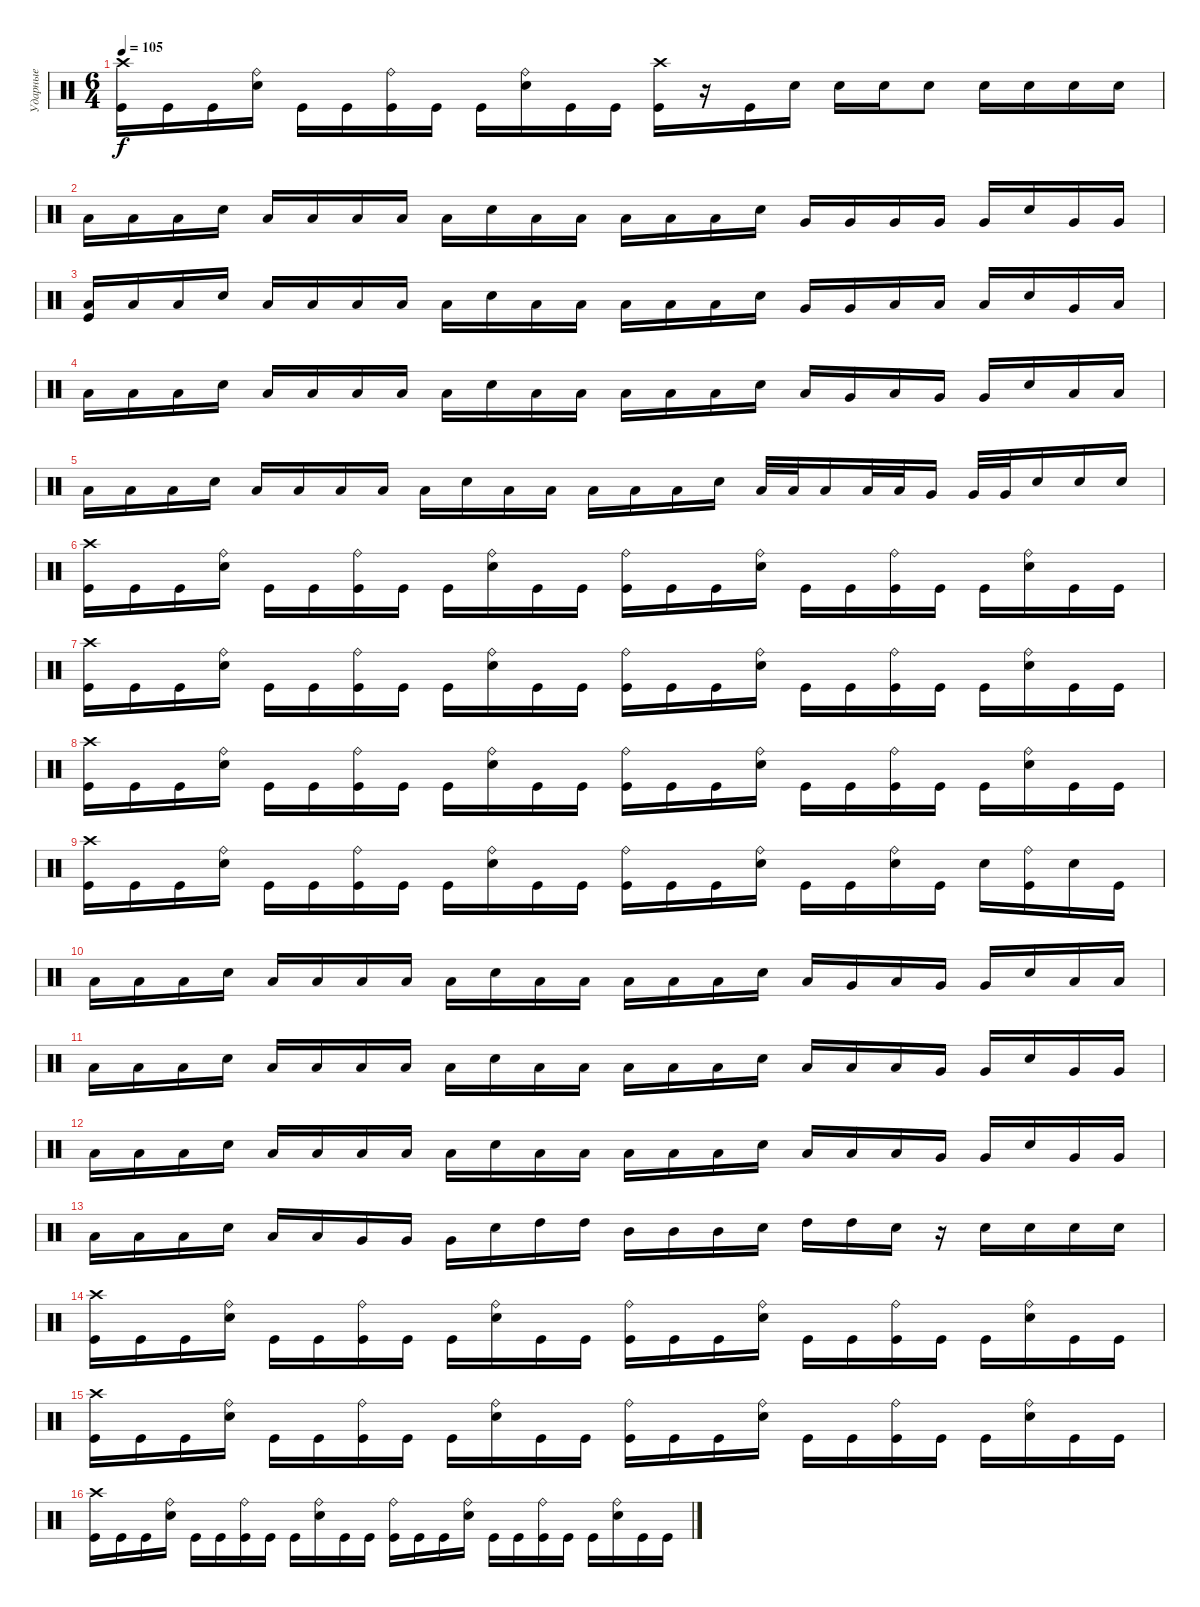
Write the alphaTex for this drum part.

\track ("Ударные" "Ударные") {instrument percussion}
\staff {score}
\articulation defaults
\ts (6 4)
\tempo 105
\clef neutral
\ks c
("Crash high (hit)" "Kick (hit)").16{dy f} "Kick (hit)".16 "Kick (hit)".16 ("Ride (bell)" "Electric Snare (hit)").16 "Kick (hit)".16 "Kick (hit)".16 ("Ride (bell)" "Kick (hit)").16 "Kick (hit)".16 "Kick (hit)".16 ("Ride (bell)" "Electric Snare (hit)").16 "Kick (hit)".16 "Kick (hit)".16 ("Crash high (hit)" "Kick (hit)").16 r.16 "Kick (hit)".16 "Electric Snare (hit)".16 "Electric Snare (hit)".16 "Electric Snare (hit)".16 "Electric Snare (hit)".8 "Electric Snare (hit)".16 "Electric Snare (hit)".16 "Electric Snare (hit)".16 "Electric Snare (hit)".16 |
"Low Tom (hit)".16 "Low Tom (hit)".16 "Low Tom (hit)".16 "Electric Snare (hit)".16 "Low Tom (hit)".16 "Low Tom (hit)".16 "Low Tom (hit)".16 "Low Tom (hit)".16 "Low Tom (hit)".16 "Electric Snare (hit)".16 "Low Tom (hit)".16 "Low Tom (hit)".16 "Low Tom (hit)".16 "Low Tom (hit)".16 "Low Tom (hit)".16 "Electric Snare (hit)".16 "Very Low Tom (hit)".16 "Very Low Tom (hit)".16 "Very Low Tom (hit)".16 "Very Low Tom (hit)".16 "Very Low Tom (hit)".16 "Electric Snare (hit)".16 "Very Low Tom (hit)".16 "Very Low Tom (hit)".16 |
("Low Tom (hit)" "Kick (hit)").16 "Low Tom (hit)".16 "Low Tom (hit)".16 "Electric Snare (hit)".16 "Low Tom (hit)".16 "Low Tom (hit)".16 "Low Tom (hit)".16 "Low Tom (hit)".16 "Low Tom (hit)".16 "Electric Snare (hit)".16 "Low Tom (hit)".16 "Low Tom (hit)".16 "Low Tom (hit)".16 "Low Tom (hit)".16 "Low Tom (hit)".16 "Electric Snare (hit)".16 "Very Low Tom (hit)".16 "Very Low Tom (hit)".16 "Low Tom (hit)".16 "Low Tom (hit)".16 "Low Tom (hit)".16 "Electric Snare (hit)".16 "Very Low Tom (hit)".16 "Low Tom (hit)".16 |
"Low Tom (hit)".16 "Low Tom (hit)".16 "Low Tom (hit)".16 "Electric Snare (hit)".16 "Low Tom (hit)".16 "Low Tom (hit)".16 "Low Tom (hit)".16 "Low Tom (hit)".16 "Low Tom (hit)".16 "Electric Snare (hit)".16 "Low Tom (hit)".16 "Low Tom (hit)".16 "Low Tom (hit)".16 "Low Tom (hit)".16 "Low Tom (hit)".16 "Electric Snare (hit)".16 "Low Tom (hit)".16 "Very Low Tom (hit)".16 "Low Tom (hit)".16 "Very Low Tom (hit)".16 "Very Low Tom (hit)".16 "Electric Snare (hit)".16 "Low Tom (hit)".16 "Low Tom (hit)".16 |
"Low Tom (hit)".16 "Low Tom (hit)".16 "Low Tom (hit)".16 "Electric Snare (hit)".16 "Low Tom (hit)".16 "Low Tom (hit)".16 "Low Tom (hit)".16 "Low Tom (hit)".16 "Low Tom (hit)".16 "Electric Snare (hit)".16 "Low Tom (hit)".16 "Low Tom (hit)".16 "Low Tom (hit)".16 "Low Tom (hit)".16 "Low Tom (hit)".16 "Electric Snare (hit)".16 "Low Tom (hit)".32 "Low Tom (hit)".32 "Low Tom (hit)".16 "Low Tom (hit)".32 "Low Tom (hit)".32 "Very Low Tom (hit)".16 "Very Low Tom (hit)".32 "Very Low Tom (hit)".32 "Electric Snare (hit)".16 "Electric Snare (hit)".16 "Electric Snare (hit)".16 |
("Crash high (hit)" "Kick (hit)").16 "Kick (hit)".16 "Kick (hit)".16 ("Ride (bell)" "Electric Snare (hit)").16 "Kick (hit)".16 "Kick (hit)".16 ("Ride (bell)" "Kick (hit)").16 "Kick (hit)".16 "Kick (hit)".16 ("Ride (bell)" "Electric Snare (hit)").16 "Kick (hit)".16 "Kick (hit)".16 ("Ride (bell)" "Kick (hit)").16 "Kick (hit)".16 "Kick (hit)".16 ("Ride (bell)" "Electric Snare (hit)").16 "Kick (hit)".16 "Kick (hit)".16 ("Ride (bell)" "Kick (hit)").16 "Kick (hit)".16 "Kick (hit)".16 ("Ride (bell)" "Electric Snare (hit)").16 "Kick (hit)".16 "Kick (hit)".16 |
("Crash high (hit)" "Kick (hit)").16 "Kick (hit)".16 "Kick (hit)".16 ("Ride (bell)" "Electric Snare (hit)").16 "Kick (hit)".16 "Kick (hit)".16 ("Ride (bell)" "Kick (hit)").16 "Kick (hit)".16 "Kick (hit)".16 ("Ride (bell)" "Electric Snare (hit)").16 "Kick (hit)".16 "Kick (hit)".16 ("Ride (bell)" "Kick (hit)").16 "Kick (hit)".16 "Kick (hit)".16 ("Ride (bell)" "Electric Snare (hit)").16 "Kick (hit)".16 "Kick (hit)".16 ("Ride (bell)" "Kick (hit)").16 "Kick (hit)".16 "Kick (hit)".16 ("Ride (bell)" "Electric Snare (hit)").16 "Kick (hit)".16 "Kick (hit)".16 |
("Crash high (hit)" "Kick (hit)").16 "Kick (hit)".16 "Kick (hit)".16 ("Ride (bell)" "Electric Snare (hit)").16 "Kick (hit)".16 "Kick (hit)".16 ("Ride (bell)" "Kick (hit)").16 "Kick (hit)".16 "Kick (hit)".16 ("Ride (bell)" "Electric Snare (hit)").16 "Kick (hit)".16 "Kick (hit)".16 ("Ride (bell)" "Kick (hit)").16 "Kick (hit)".16 "Kick (hit)".16 ("Ride (bell)" "Electric Snare (hit)").16 "Kick (hit)".16 "Kick (hit)".16 ("Ride (bell)" "Kick (hit)").16 "Kick (hit)".16 "Kick (hit)".16 ("Ride (bell)" "Electric Snare (hit)").16 "Kick (hit)".16 "Kick (hit)".16 |
("Crash high (hit)" "Kick (hit)").16 "Kick (hit)".16 "Kick (hit)".16 ("Ride (bell)" "Electric Snare (hit)").16 "Kick (hit)".16 "Kick (hit)".16 ("Ride (bell)" "Kick (hit)").16 "Kick (hit)".16 "Kick (hit)".16 ("Ride (bell)" "Electric Snare (hit)").16 "Kick (hit)".16 "Kick (hit)".16 ("Ride (bell)" "Kick (hit)").16 "Kick (hit)".16 "Kick (hit)".16 ("Ride (bell)" "Electric Snare (hit)").16 "Kick (hit)".16 "Kick (hit)".16 ("Ride (bell)" "Electric Snare (hit)").16 "Kick (hit)".16 "Electric Snare (hit)".16 ("Ride (bell)" "Kick (hit)").16 "Electric Snare (hit)".16 "Kick (hit)".16 |
"Low Tom (hit)".16 "Low Tom (hit)".16 "Low Tom (hit)".16 "Electric Snare (hit)".16 "Low Tom (hit)".16 "Low Tom (hit)".16 "Low Tom (hit)".16 "Low Tom (hit)".16 "Low Tom (hit)".16 "Electric Snare (hit)".16 "Low Tom (hit)".16 "Low Tom (hit)".16 "Low Tom (hit)".16 "Low Tom (hit)".16 "Low Tom (hit)".16 "Electric Snare (hit)".16 "Low Tom (hit)".16 "Very Low Tom (hit)".16 "Low Tom (hit)".16 "Very Low Tom (hit)".16 "Very Low Tom (hit)".16 "Electric Snare (hit)".16 "Low Tom (hit)".16 "Low Tom (hit)".16 |
"Low Tom (hit)".16 "Low Tom (hit)".16 "Low Tom (hit)".16 "Electric Snare (hit)".16 "Low Tom (hit)".16 "Low Tom (hit)".16 "Low Tom (hit)".16 "Low Tom (hit)".16 "Low Tom (hit)".16 "Electric Snare (hit)".16 "Low Tom (hit)".16 "Low Tom (hit)".16 "Low Tom (hit)".16 "Low Tom (hit)".16 "Low Tom (hit)".16 "Electric Snare (hit)".16 "Low Tom (hit)".16 "Low Tom (hit)".16 "Low Tom (hit)".16 "Very Low Tom (hit)".16 "Very Low Tom (hit)".16 "Electric Snare (hit)".16 "Very Low Tom (hit)".16 "Very Low Tom (hit)".16 |
"Low Tom (hit)".16 "Low Tom (hit)".16 "Low Tom (hit)".16 "Electric Snare (hit)".16 "Low Tom (hit)".16 "Low Tom (hit)".16 "Low Tom (hit)".16 "Low Tom (hit)".16 "Low Tom (hit)".16 "Electric Snare (hit)".16 "Low Tom (hit)".16 "Low Tom (hit)".16 "Low Tom (hit)".16 "Low Tom (hit)".16 "Low Tom (hit)".16 "Electric Snare (hit)".16 "Low Tom (hit)".16 "Low Tom (hit)".16 "Low Tom (hit)".16 "Very Low Tom (hit)".16 "Very Low Tom (hit)".16 "Electric Snare (hit)".16 "Very Low Tom (hit)".16 "Very Low Tom (hit)".16 |
"Low Tom (hit)".16 "Low Tom (hit)".16 "Low Tom (hit)".16 "Electric Snare (hit)".16 "Low Tom (hit)".16 "Low Tom (hit)".16 "Very Low Tom (hit)".16 "Very Low Tom (hit)".16 "Very Low Tom (hit)".16 "Electric Snare (hit)".16 "High Tom (hit)".16 "High Tom (hit)".16 "Mid Tom (hit)".16 "Mid Tom (hit)".16 "Mid Tom (hit)".16 "Electric Snare (hit)".16 "High Tom (hit)".16 "High Tom (hit)".16 "Electric Snare (hit)".16 r.16 "Electric Snare (hit)".16 "Electric Snare (hit)".16 "Electric Snare (hit)".16 "Electric Snare (hit)".16 |
("Crash high (hit)" "Kick (hit)").16 "Kick (hit)".16 "Kick (hit)".16 ("Ride (bell)" "Electric Snare (hit)").16 "Kick (hit)".16 "Kick (hit)".16 ("Ride (bell)" "Kick (hit)").16 "Kick (hit)".16 "Kick (hit)".16 ("Ride (bell)" "Electric Snare (hit)").16 "Kick (hit)".16 "Kick (hit)".16 ("Ride (bell)" "Kick (hit)").16 "Kick (hit)".16 "Kick (hit)".16 ("Ride (bell)" "Electric Snare (hit)").16 "Kick (hit)".16 "Kick (hit)".16 ("Ride (bell)" "Kick (hit)").16 "Kick (hit)".16 "Kick (hit)".16 ("Ride (bell)" "Electric Snare (hit)").16 "Kick (hit)".16 "Kick (hit)".16 |
("Crash high (hit)" "Kick (hit)").16 "Kick (hit)".16 "Kick (hit)".16 ("Ride (bell)" "Electric Snare (hit)").16 "Kick (hit)".16 "Kick (hit)".16 ("Ride (bell)" "Kick (hit)").16 "Kick (hit)".16 "Kick (hit)".16 ("Ride (bell)" "Electric Snare (hit)").16 "Kick (hit)".16 "Kick (hit)".16 ("Ride (bell)" "Kick (hit)").16 "Kick (hit)".16 "Kick (hit)".16 ("Ride (bell)" "Electric Snare (hit)").16 "Kick (hit)".16 "Kick (hit)".16 ("Ride (bell)" "Kick (hit)").16 "Kick (hit)".16 "Kick (hit)".16 ("Ride (bell)" "Electric Snare (hit)").16 "Kick (hit)".16 "Kick (hit)".16 |
("Crash high (hit)" "Kick (hit)").16 "Kick (hit)".16 "Kick (hit)".16 ("Ride (bell)" "Electric Snare (hit)").16 "Kick (hit)".16 "Kick (hit)".16 ("Ride (bell)" "Kick (hit)").16 "Kick (hit)".16 "Kick (hit)".16 ("Ride (bell)" "Electric Snare (hit)").16 "Kick (hit)".16 "Kick (hit)".16 ("Ride (bell)" "Kick (hit)").16 "Kick (hit)".16 "Kick (hit)".16 ("Ride (bell)" "Electric Snare (hit)").16 "Kick (hit)".16 "Kick (hit)".16 ("Ride (bell)" "Kick (hit)").16 "Kick (hit)".16 "Kick (hit)".16 ("Ride (bell)" "Electric Snare (hit)").16 "Kick (hit)".16 "Kick (hit)".16
